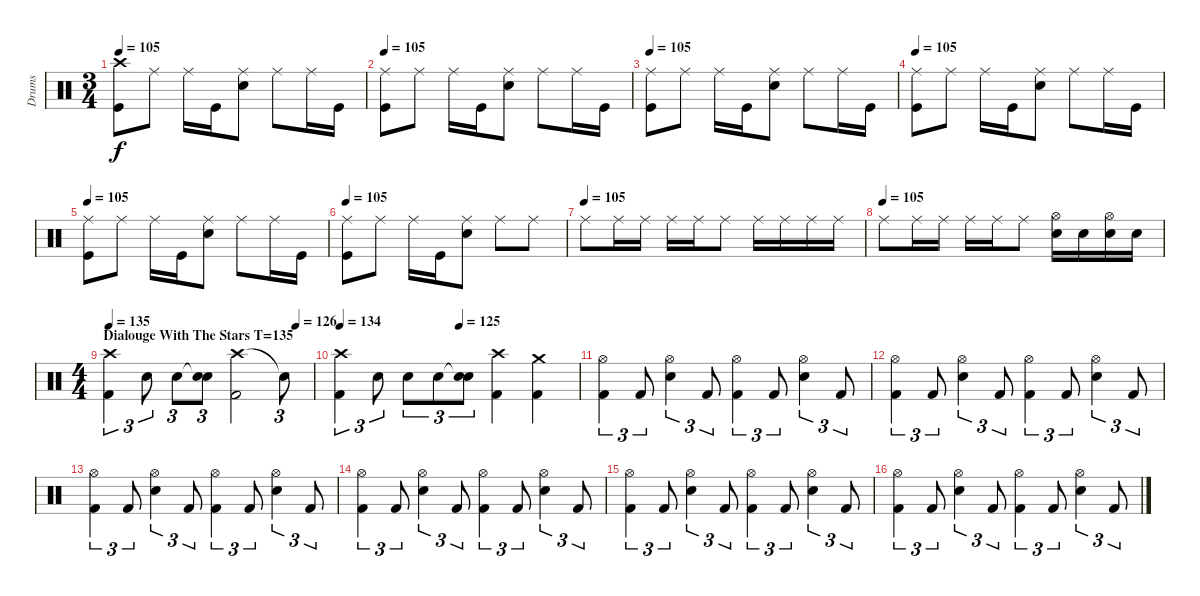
\track ("Drums" "Drums") {instrument percussion}
\staff {score}
\articulation defaults
\ts (3 4)
\tempo 105
\clef neutral
\ks c
("Crash high (hit)" "Kick (hit)").8{dy f} "Ride (middle)".8 "Ride (middle)".16 "Kick (hit)".16 ("Ride (middle)" "Electric Snare (hit)").8 "Ride (middle)".8 "Ride (middle)".16 "Kick (hit)".16 |
\tempo 105
("Ride (middle)" "Kick (hit)").8 "Ride (middle)".8 "Ride (middle)".16 "Kick (hit)".16 ("Ride (middle)" "Electric Snare (hit)").8 "Ride (middle)".8 "Ride (middle)".16 "Kick (hit)".16 |
\tempo 105
("Ride (middle)" "Kick (hit)").8 "Ride (middle)".8 "Ride (middle)".16 "Kick (hit)".16 ("Ride (middle)" "Electric Snare (hit)").8 "Ride (middle)".8 "Ride (middle)".16 "Kick (hit)".16 |
\tempo 105
("Ride (middle)" "Kick (hit)").8 "Ride (middle)".8 "Ride (middle)".16 "Kick (hit)".16 ("Ride (middle)" "Electric Snare (hit)").8 "Ride (middle)".8 "Ride (middle)".16 "Kick (hit)".16 |
\tempo 105
("Ride (middle)" "Kick (hit)").8 "Ride (middle)".8 "Ride (middle)".16 "Kick (hit)".16 ("Ride (middle)" "Electric Snare (hit)").8 "Ride (middle)".8 "Ride (middle)".16 "Kick (hit)".16 |
\tempo 105
("Ride (middle)" "Kick (hit)").8 "Ride (middle)".8 "Ride (middle)".16 "Kick (hit)".16 ("Ride (middle)" "Electric Snare (hit)").8 "Ride (middle)".8 "Ride (middle)".8 |
\tempo (105)
"Ride (middle)".8 "Ride (middle)".16 "Ride (middle)".16 "Ride (middle)".16 "Ride (middle)".16 "Ride (middle)".8 "Ride (middle)".16 "Ride (middle)".16 "Ride (middle)".16 "Ride (middle)".16 |
\tempo (105)
"Ride (middle)".8 "Ride (middle)".16 "Ride (middle)".16 "Ride (middle)".16 "Ride (middle)".16 "Ride (middle)".8 ("Hi-Hat (open)" "Electric Snare (hit)").16 "Electric Snare (hit)".16 ("Hi-Hat (open)" "Electric Snare (hit)").16 "Electric Snare (hit)".16 |
\ts (4 4)
\section ("" "Dialouge With The Stars T=135")
\tempo 135
\tempo (126 0.9166666666666666)
("Crash high (hit)" "Kick (hit) 2").4{tu (3 2)} "Electric Snare (hit)".8{tu (3 2)} "Electric Snare (hit)".8{tu (3 2)} ("Snare (hit)"{t} "Electric Snare (hit)").8{tu (3 2)} ("Crash high (hit)" "Kick (hit) 2").2 "Snare (hit)"{t}.8{tu (3 2)} |
\tempo 134
\tempo (125 0.5)
("Crash high (hit)" "Kick (hit) 2").4{tu (3 2)} "Electric Snare (hit)".8{tu (3 2)} "Electric Snare (hit)".8{tu (3 2)} "Electric Snare (hit)".8{tu (3 2)} ("Snare (hit)"{t} "Electric Snare (hit)").8{tu (3 2)} ("Crash high (hit)" "Kick (hit) 2").4 ("Crash medium (hit)" "Kick (hit) 2").4 |
("Hi-Hat (open)" "Kick (hit) 2").4{tu (3 2)} "Kick (hit) 2".8{tu (3 2)} ("Hi-Hat (open)" "Electric Snare (hit)").4{tu (3 2)} "Kick (hit) 2".8{tu (3 2)} ("Hi-Hat (open)" "Kick (hit) 2").4{tu (3 2)} "Kick (hit) 2".8{tu (3 2)} ("Hi-Hat (open)" "Electric Snare (hit)").4{tu (3 2)} "Kick (hit) 2".8{tu (3 2)} |
("Hi-Hat (open)" "Kick (hit) 2").4{tu (3 2)} "Kick (hit) 2".8{tu (3 2)} ("Hi-Hat (open)" "Electric Snare (hit)").4{tu (3 2)} "Kick (hit) 2".8{tu (3 2)} ("Hi-Hat (open)" "Kick (hit) 2").4{tu (3 2)} "Kick (hit) 2".8{tu (3 2)} ("Hi-Hat (open)" "Electric Snare (hit)").4{tu (3 2)} "Kick (hit) 2".8{tu (3 2)} |
("Hi-Hat (open)" "Kick (hit) 2").4{tu (3 2)} "Kick (hit) 2".8{tu (3 2)} ("Hi-Hat (open)" "Electric Snare (hit)").4{tu (3 2)} "Kick (hit) 2".8{tu (3 2)} ("Hi-Hat (open)" "Kick (hit) 2").4{tu (3 2)} "Kick (hit) 2".8{tu (3 2)} ("Hi-Hat (open)" "Electric Snare (hit)").4{tu (3 2)} "Kick (hit) 2".8{tu (3 2)} |
("Hi-Hat (open)" "Kick (hit) 2").4{tu (3 2)} "Kick (hit) 2".8{tu (3 2)} ("Hi-Hat (open)" "Electric Snare (hit)").4{tu (3 2)} "Kick (hit) 2".8{tu (3 2)} ("Hi-Hat (open)" "Kick (hit) 2").4{tu (3 2)} "Kick (hit) 2".8{tu (3 2)} ("Hi-Hat (open)" "Electric Snare (hit)").4{tu (3 2)} "Kick (hit) 2".8{tu (3 2)} |
("Hi-Hat (open)" "Kick (hit) 2").4{tu (3 2)} "Kick (hit) 2".8{tu (3 2)} ("Hi-Hat (open)" "Electric Snare (hit)").4{tu (3 2)} "Kick (hit) 2".8{tu (3 2)} ("Hi-Hat (open)" "Kick (hit) 2").4{tu (3 2)} "Kick (hit) 2".8{tu (3 2)} ("Hi-Hat (open)" "Electric Snare (hit)").4{tu (3 2)} "Kick (hit) 2".8{tu (3 2)} |
("Hi-Hat (open)" "Kick (hit) 2").4{tu (3 2)} "Kick (hit) 2".8{tu (3 2)} ("Hi-Hat (open)" "Electric Snare (hit)").4{tu (3 2)} "Kick (hit) 2".8{tu (3 2)} ("Hi-Hat (open)" "Kick (hit) 2").4{tu (3 2)} "Kick (hit) 2".8{tu (3 2)} ("Hi-Hat (open)" "Electric Snare (hit)").4{tu (3 2)} "Kick (hit) 2".8{tu (3 2)}
